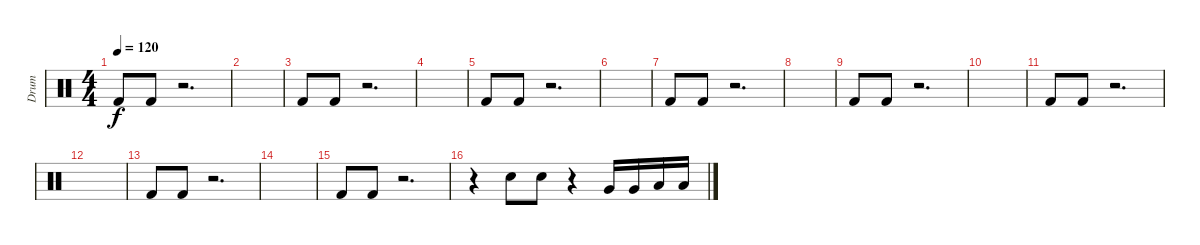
\track ("Drum" "Drum") {instrument percussion}
\staff {score}
\articulation defaults
\ts (4 4)
\tempo 120
\clef neutral
\ks c "Kick (hit) 2".8{dy f} "Kick (hit) 2".8
r.2{d} |
|
"Kick (hit) 2".8 "Kick (hit) 2".8 r.2{d} |
|
"Kick (hit) 2".8 "Kick (hit) 2".8 r.2{d} |
|
"Kick (hit) 2".8 "Kick (hit) 2".8 r.2{d} |
|
"Kick (hit) 2".8 "Kick (hit) 2".8 r.2{d} |
|
"Kick (hit) 2".8 "Kick (hit) 2".8 r.2{d} |
|
"Kick (hit) 2".8 "Kick (hit) 2".8 r.2{d} |
|
"Kick (hit) 2".8 "Kick (hit) 2".8 r.2{d} |
r.4 "Snare (hit) 2".8 "Snare (hit) 2".8 r.4 "Very Low Tom (hit)".16 "Very Low Tom (hit)".16 "Low Tom (hit)".16 "Low Tom (hit)".16
